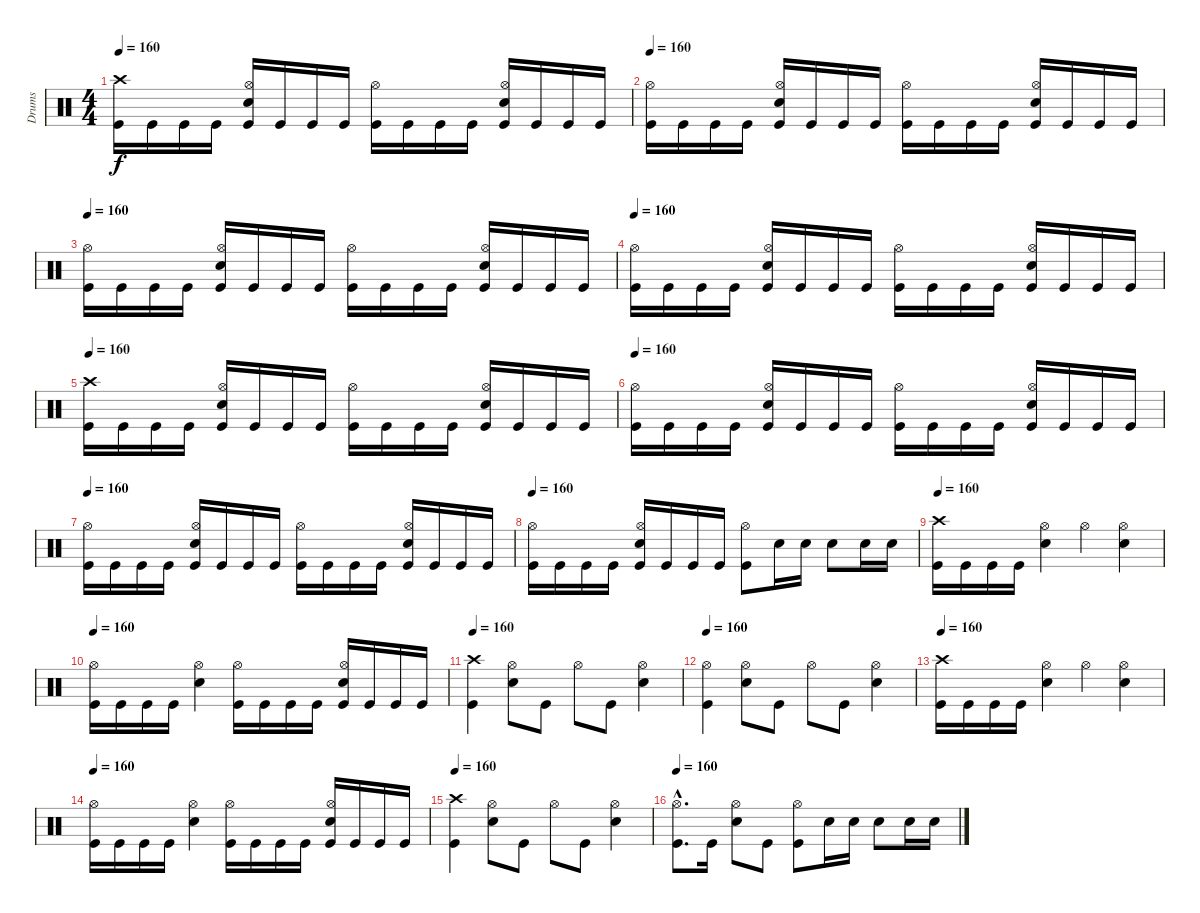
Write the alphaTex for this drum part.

\track ("Drums" "Drums") {instrument percussion}
\staff {score}
\articulation defaults
\ts (4 4)
\tempo 160
\clef neutral
\ks c
("Crash high (hit)" "Kick (hit)").16{dy f} "Kick (hit)".16 "Kick (hit)".16 "Kick (hit)".16 ("Hi-Hat (open)" "Electric Snare (hit)" "Kick (hit)").16 "Kick (hit)".16 "Kick (hit)".16 "Kick (hit)".16 ("Hi-Hat (open)" "Kick (hit)").16 "Kick (hit)".16 "Kick (hit)".16 "Kick (hit)".16 ("Hi-Hat (open)" "Electric Snare (hit)" "Kick (hit)").16 "Kick (hit)".16 "Kick (hit)".16 "Kick (hit)".16 |
\tempo 160
("Hi-Hat (open)" "Kick (hit)").16 "Kick (hit)".16 "Kick (hit)".16 "Kick (hit)".16 ("Hi-Hat (open)" "Electric Snare (hit)" "Kick (hit)").16 "Kick (hit)".16 "Kick (hit)".16 "Kick (hit)".16 ("Hi-Hat (open)" "Kick (hit)").16 "Kick (hit)".16 "Kick (hit)".16 "Kick (hit)".16 ("Hi-Hat (open)" "Electric Snare (hit)" "Kick (hit)").16 "Kick (hit)".16 "Kick (hit)".16 "Kick (hit)".16 |
\tempo 160
("Hi-Hat (open)" "Kick (hit)").16 "Kick (hit)".16 "Kick (hit)".16 "Kick (hit)".16 ("Hi-Hat (open)" "Electric Snare (hit)" "Kick (hit)").16 "Kick (hit)".16 "Kick (hit)".16 "Kick (hit)".16 ("Hi-Hat (open)" "Kick (hit)").16 "Kick (hit)".16 "Kick (hit)".16 "Kick (hit)".16 ("Hi-Hat (open)" "Electric Snare (hit)" "Kick (hit)").16 "Kick (hit)".16 "Kick (hit)".16 "Kick (hit)".16 |
\tempo 160
("Hi-Hat (open)" "Kick (hit)").16 "Kick (hit)".16 "Kick (hit)".16 "Kick (hit)".16 ("Hi-Hat (open)" "Electric Snare (hit)" "Kick (hit)").16 "Kick (hit)".16 "Kick (hit)".16 "Kick (hit)".16 ("Hi-Hat (open)" "Kick (hit)").16 "Kick (hit)".16 "Kick (hit)".16 "Kick (hit)".16 ("Hi-Hat (open)" "Electric Snare (hit)" "Kick (hit)").16 "Kick (hit)".16 "Kick (hit)".16 "Kick (hit)".16 |
\tempo 160
("Crash high (hit)" "Kick (hit)").16 "Kick (hit)".16 "Kick (hit)".16 "Kick (hit)".16 ("Hi-Hat (open)" "Electric Snare (hit)" "Kick (hit)").16 "Kick (hit)".16 "Kick (hit)".16 "Kick (hit)".16 ("Hi-Hat (open)" "Kick (hit)").16 "Kick (hit)".16 "Kick (hit)".16 "Kick (hit)".16 ("Hi-Hat (open)" "Electric Snare (hit)" "Kick (hit)").16 "Kick (hit)".16 "Kick (hit)".16 "Kick (hit)".16 |
\tempo 160
("Hi-Hat (open)" "Kick (hit)").16 "Kick (hit)".16 "Kick (hit)".16 "Kick (hit)".16 ("Hi-Hat (open)" "Electric Snare (hit)" "Kick (hit)").16 "Kick (hit)".16 "Kick (hit)".16 "Kick (hit)".16 ("Hi-Hat (open)" "Kick (hit)").16 "Kick (hit)".16 "Kick (hit)".16 "Kick (hit)".16 ("Hi-Hat (open)" "Electric Snare (hit)" "Kick (hit)").16 "Kick (hit)".16 "Kick (hit)".16 "Kick (hit)".16 |
\tempo 160
("Hi-Hat (open)" "Kick (hit)").16 "Kick (hit)".16 "Kick (hit)".16 "Kick (hit)".16 ("Hi-Hat (open)" "Electric Snare (hit)" "Kick (hit)").16 "Kick (hit)".16 "Kick (hit)".16 "Kick (hit)".16 ("Hi-Hat (open)" "Kick (hit)").16 "Kick (hit)".16 "Kick (hit)".16 "Kick (hit)".16 ("Hi-Hat (open)" "Electric Snare (hit)" "Kick (hit)").16 "Kick (hit)".16 "Kick (hit)".16 "Kick (hit)".16 |
\tempo 160
("Hi-Hat (open)" "Kick (hit)").16 "Kick (hit)".16 "Kick (hit)".16 "Kick (hit)".16 ("Hi-Hat (open)" "Electric Snare (hit)" "Kick (hit)").16 "Kick (hit)".16 "Kick (hit)".16 "Kick (hit)".16 ("Hi-Hat (open)" "Kick (hit)").8 "Electric Snare (hit)".16 "Electric Snare (hit)".16 "Electric Snare (hit)".8 "Electric Snare (hit)".16 "Electric Snare (hit)".16 |
\tempo 160
("Crash high (hit)" "Kick (hit)").16 "Kick (hit)".16 "Kick (hit)".16 "Kick (hit)".16 ("Hi-Hat (open)" "Electric Snare (hit)").4 "Hi-Hat (open)".4 ("Hi-Hat (open)" "Electric Snare (hit)").4 |
\tempo 160
("Hi-Hat (open)" "Kick (hit)").16 "Kick (hit)".16 "Kick (hit)".16 "Kick (hit)".16 ("Hi-Hat (open)" "Electric Snare (hit)").4 ("Hi-Hat (open)" "Kick (hit)").16 "Kick (hit)".16 "Kick (hit)".16 "Kick (hit)".16 ("Hi-Hat (open)" "Electric Snare (hit)" "Kick (hit)").16 "Kick (hit)".16 "Kick (hit)".16 "Kick (hit)".16 |
\tempo 160
("Crash high (hit)" "Kick (hit)").4 ("Hi-Hat (open)" "Electric Snare (hit)").8 "Kick (hit)".8 "Hi-Hat (open)".8 "Kick (hit)".8 ("Hi-Hat (open)" "Electric Snare (hit)").4 |
\tempo 160
("Hi-Hat (open)" "Kick (hit)").4 ("Hi-Hat (open)" "Electric Snare (hit)").8 "Kick (hit)".8 "Hi-Hat (open)".8 "Kick (hit)".8 ("Hi-Hat (open)" "Electric Snare (hit)").4 |
\tempo 160
("Crash high (hit)" "Kick (hit)").16 "Kick (hit)".16 "Kick (hit)".16 "Kick (hit)".16 ("Hi-Hat (open)" "Electric Snare (hit)").4 "Hi-Hat (open)".4 ("Hi-Hat (open)" "Electric Snare (hit)").4 |
\tempo 160
("Hi-Hat (open)" "Kick (hit)").16 "Kick (hit)".16 "Kick (hit)".16 "Kick (hit)".16 ("Hi-Hat (open)" "Electric Snare (hit)").4 ("Hi-Hat (open)" "Kick (hit)").16 "Kick (hit)".16 "Kick (hit)".16 "Kick (hit)".16 ("Hi-Hat (open)" "Electric Snare (hit)" "Kick (hit)").16 "Kick (hit)".16 "Kick (hit)".16 "Kick (hit)".16 |
\tempo 160
("Crash high (hit)" "Kick (hit)").4 ("Hi-Hat (open)" "Electric Snare (hit)").8 "Kick (hit)".8 "Hi-Hat (open)".8 "Kick (hit)".8 ("Hi-Hat (open)" "Electric Snare (hit)").4 |
\tempo 160
("Hi-Hat (open)"{hac} "Kick (hit)"{hac}).8{d} "Kick (hit)".16 ("Hi-Hat (open)" "Electric Snare (hit)").8 "Kick (hit)".8 ("Hi-Hat (open)" "Kick (hit)").8 "Electric Snare (hit)".16 "Electric Snare (hit)".16 "Electric Snare (hit)".8 "Electric Snare (hit)".16 "Electric Snare (hit)".16
